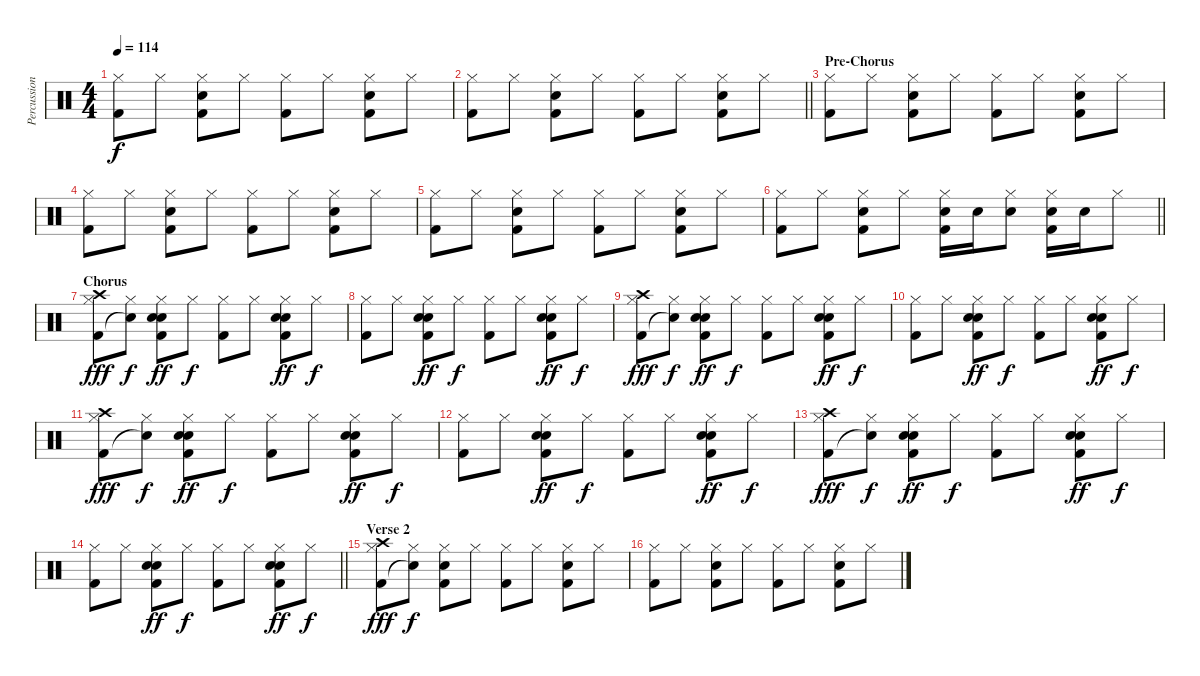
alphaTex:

\track ("Percussion" "Percussion") {instrument percussion}
\staff {score}
\articulation defaults
\ts (4 4)
\tempo 114
\clef neutral
\ks c
("Hi-Hat (closed)" "Kick (hit) 2").8{dy f} "Hi-Hat (closed)".8 ("Hi-Hat (closed)" "Snare (hit) 2" "Kick (hit) 2").8 "Hi-Hat (closed)".8 ("Hi-Hat (closed)" "Kick (hit) 2").8 "Hi-Hat (closed)".8 ("Hi-Hat (closed)" "Snare (hit) 2" "Kick (hit) 2").8 "Hi-Hat (closed)".8 |
\barLineRight lightlight
("Hi-Hat (closed)" "Kick (hit) 2").8 "Hi-Hat (closed)".8 ("Hi-Hat (closed)" "Snare (hit) 2" "Kick (hit) 2").8 "Hi-Hat (closed)".8 ("Hi-Hat (closed)" "Kick (hit) 2").8 "Hi-Hat (closed)".8 ("Hi-Hat (closed)" "Snare (hit) 2" "Kick (hit) 2").8 "Hi-Hat (closed)".8 |
\section ("" "Pre-Chorus")
("Hi-Hat (closed)" "Kick (hit) 2").8 "Hi-Hat (closed)".8 ("Hi-Hat (closed)" "Snare (hit) 2" "Kick (hit) 2").8 "Hi-Hat (closed)".8 ("Hi-Hat (closed)" "Kick (hit) 2").8 "Hi-Hat (closed)".8 ("Hi-Hat (closed)" "Snare (hit) 2" "Kick (hit) 2").8 "Hi-Hat (closed)".8 |
("Hi-Hat (closed)" "Kick (hit) 2").8 "Hi-Hat (closed)".8 ("Hi-Hat (closed)" "Snare (hit) 2" "Kick (hit) 2").8 "Hi-Hat (closed)".8 ("Hi-Hat (closed)" "Kick (hit) 2").8 "Hi-Hat (closed)".8 ("Hi-Hat (closed)" "Snare (hit) 2" "Kick (hit) 2").8 "Hi-Hat (closed)".8 |
("Hi-Hat (closed)" "Kick (hit) 2").8 "Hi-Hat (closed)".8 ("Hi-Hat (closed)" "Snare (hit) 2" "Kick (hit) 2").8 "Hi-Hat (closed)".8 ("Hi-Hat (closed)" "Kick (hit) 2").8 "Hi-Hat (closed)".8 ("Hi-Hat (closed)" "Snare (hit) 2" "Kick (hit) 2").8 "Hi-Hat (closed)".8 |
\barLineRight lightlight
("Hi-Hat (closed)" "Kick (hit) 2").8 "Hi-Hat (closed)".8 ("Hi-Hat (closed)" "Snare (hit) 2" "Kick (hit) 2").8 "Hi-Hat (closed)".8 ("Hi-Hat (closed)" "Snare (hit) 2" "Kick (hit) 2").16 "Snare (hit) 2".16 ("Hi-Hat (closed)" "Snare (hit) 2").8 ("Hi-Hat (closed)" "Snare (hit) 2" "Kick (hit) 2").16 "Snare (hit) 2".16 "Hi-Hat (closed)".8 |
\section ("" "Chorus")
("Hi-Hat (closed)" "Kick (hit) 2" "Crash high (hit)").8{dy fff} ("Hi-Hat (closed)" "Snare (hit)"{t}).8{dy f} ("Hand Clap (hit)" "Hi-Hat (closed)" "Snare (hit) 2" "Kick (hit) 2").8{dy ff} "Hi-Hat (closed)".8{dy f} ("Hi-Hat (closed)" "Kick (hit) 2").8 "Hi-Hat (closed)".8 ("Hand Clap (hit)" "Hi-Hat (closed)" "Snare (hit) 2" "Kick (hit) 2").8{dy ff} "Hi-Hat (closed)".8{dy f} |
("Hi-Hat (closed)" "Kick (hit) 2").8 "Hi-Hat (closed)".8 ("Hand Clap (hit)" "Hi-Hat (closed)" "Snare (hit) 2" "Kick (hit) 2").8{dy ff} "Hi-Hat (closed)".8{dy f} ("Hi-Hat (closed)" "Kick (hit) 2").8 "Hi-Hat (closed)".8 ("Hand Clap (hit)" "Hi-Hat (closed)" "Snare (hit) 2" "Kick (hit) 2").8{dy ff} "Hi-Hat (closed)".8{dy f} |
("Hi-Hat (closed)" "Kick (hit) 2" "Crash high (hit)").8{dy fff} ("Hi-Hat (closed)" "Snare (hit)"{t}).8{dy f} ("Hand Clap (hit)" "Hi-Hat (closed)" "Snare (hit) 2" "Kick (hit) 2").8{dy ff} "Hi-Hat (closed)".8{dy f} ("Hi-Hat (closed)" "Kick (hit) 2").8 "Hi-Hat (closed)".8 ("Hand Clap (hit)" "Hi-Hat (closed)" "Snare (hit) 2" "Kick (hit) 2").8{dy ff} "Hi-Hat (closed)".8{dy f} |
("Hi-Hat (closed)" "Kick (hit) 2").8 "Hi-Hat (closed)".8 ("Hand Clap (hit)" "Hi-Hat (closed)" "Snare (hit) 2" "Kick (hit) 2").8{dy ff} "Hi-Hat (closed)".8{dy f} ("Hi-Hat (closed)" "Kick (hit) 2").8 "Hi-Hat (closed)".8 ("Hand Clap (hit)" "Hi-Hat (closed)" "Snare (hit) 2" "Kick (hit) 2").8{dy ff} "Hi-Hat (closed)".8{dy f} |
("Hi-Hat (closed)" "Kick (hit) 2" "Crash high (hit)").8{dy fff} ("Hi-Hat (closed)" "Snare (hit)"{t}).8{dy f} ("Hand Clap (hit)" "Hi-Hat (closed)" "Snare (hit) 2" "Kick (hit) 2").8{dy ff} "Hi-Hat (closed)".8{dy f} ("Hi-Hat (closed)" "Kick (hit) 2").8 "Hi-Hat (closed)".8 ("Hand Clap (hit)" "Hi-Hat (closed)" "Snare (hit) 2" "Kick (hit) 2").8{dy ff} "Hi-Hat (closed)".8{dy f} |
("Hi-Hat (closed)" "Kick (hit) 2").8 "Hi-Hat (closed)".8 ("Hand Clap (hit)" "Hi-Hat (closed)" "Snare (hit) 2" "Kick (hit) 2").8{dy ff} "Hi-Hat (closed)".8{dy f} ("Hi-Hat (closed)" "Kick (hit) 2").8 "Hi-Hat (closed)".8 ("Hand Clap (hit)" "Hi-Hat (closed)" "Snare (hit) 2" "Kick (hit) 2").8{dy ff} "Hi-Hat (closed)".8{dy f} |
("Hi-Hat (closed)" "Kick (hit) 2" "Crash high (hit)").8{dy fff} ("Hi-Hat (closed)" "Snare (hit)"{t}).8{dy f} ("Hand Clap (hit)" "Hi-Hat (closed)" "Snare (hit) 2" "Kick (hit) 2").8{dy ff} "Hi-Hat (closed)".8{dy f} ("Hi-Hat (closed)" "Kick (hit) 2").8 "Hi-Hat (closed)".8 ("Hand Clap (hit)" "Hi-Hat (closed)" "Snare (hit) 2" "Kick (hit) 2").8{dy ff} "Hi-Hat (closed)".8{dy f} |
\barLineRight lightlight
("Hi-Hat (closed)" "Kick (hit) 2").8 "Hi-Hat (closed)".8 ("Hand Clap (hit)" "Hi-Hat (closed)" "Snare (hit) 2" "Kick (hit) 2").8{dy ff} "Hi-Hat (closed)".8{dy f} ("Hi-Hat (closed)" "Kick (hit) 2").8 "Hi-Hat (closed)".8 ("Hand Clap (hit)" "Hi-Hat (closed)" "Snare (hit) 2" "Kick (hit) 2").8{dy ff} "Hi-Hat (closed)".8{dy f} |
\section ("" "Verse 2")
("Hi-Hat (closed)" "Kick (hit) 2" "Crash high (hit)").8{dy fff} ("Hi-Hat (closed)" "Snare (hit)"{t}).8{dy f} ("Hi-Hat (closed)" "Snare (hit) 2" "Kick (hit) 2").8 "Hi-Hat (closed)".8 ("Hi-Hat (closed)" "Kick (hit) 2").8 "Hi-Hat (closed)".8 ("Hi-Hat (closed)" "Snare (hit) 2" "Kick (hit) 2").8 "Hi-Hat (closed)".8 |
("Hi-Hat (closed)" "Kick (hit) 2").8 "Hi-Hat (closed)".8 ("Hi-Hat (closed)" "Snare (hit) 2" "Kick (hit) 2").8 "Hi-Hat (closed)".8 ("Hi-Hat (closed)" "Kick (hit) 2").8 "Hi-Hat (closed)".8 ("Hi-Hat (closed)" "Snare (hit) 2" "Kick (hit) 2").8 "Hi-Hat (closed)".8
